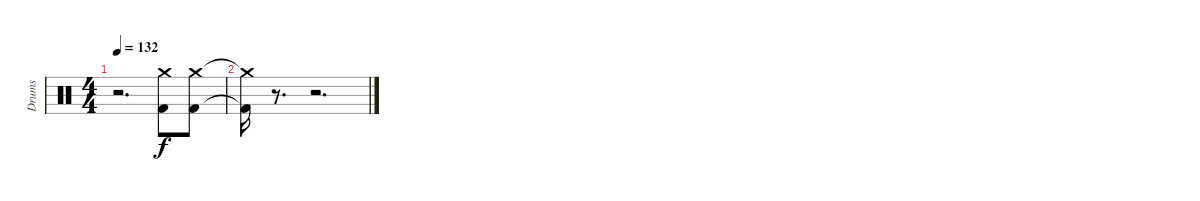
\track ("Drums" "Drums") {instrument percussion}
\staff {score}
\articulation defaults
\ts (4 4)
\tempo 132
\clef neutral
\ks c
r.2{d dy f} ("Crash medium (hit)" "Kick (hit) 2").8 ("Crash medium (hit)" "Kick (hit) 2").8 |
("Crash medium (hit)"{t} "Kick (hit) 2"{t}).16 r.8{d} r.2{d}
